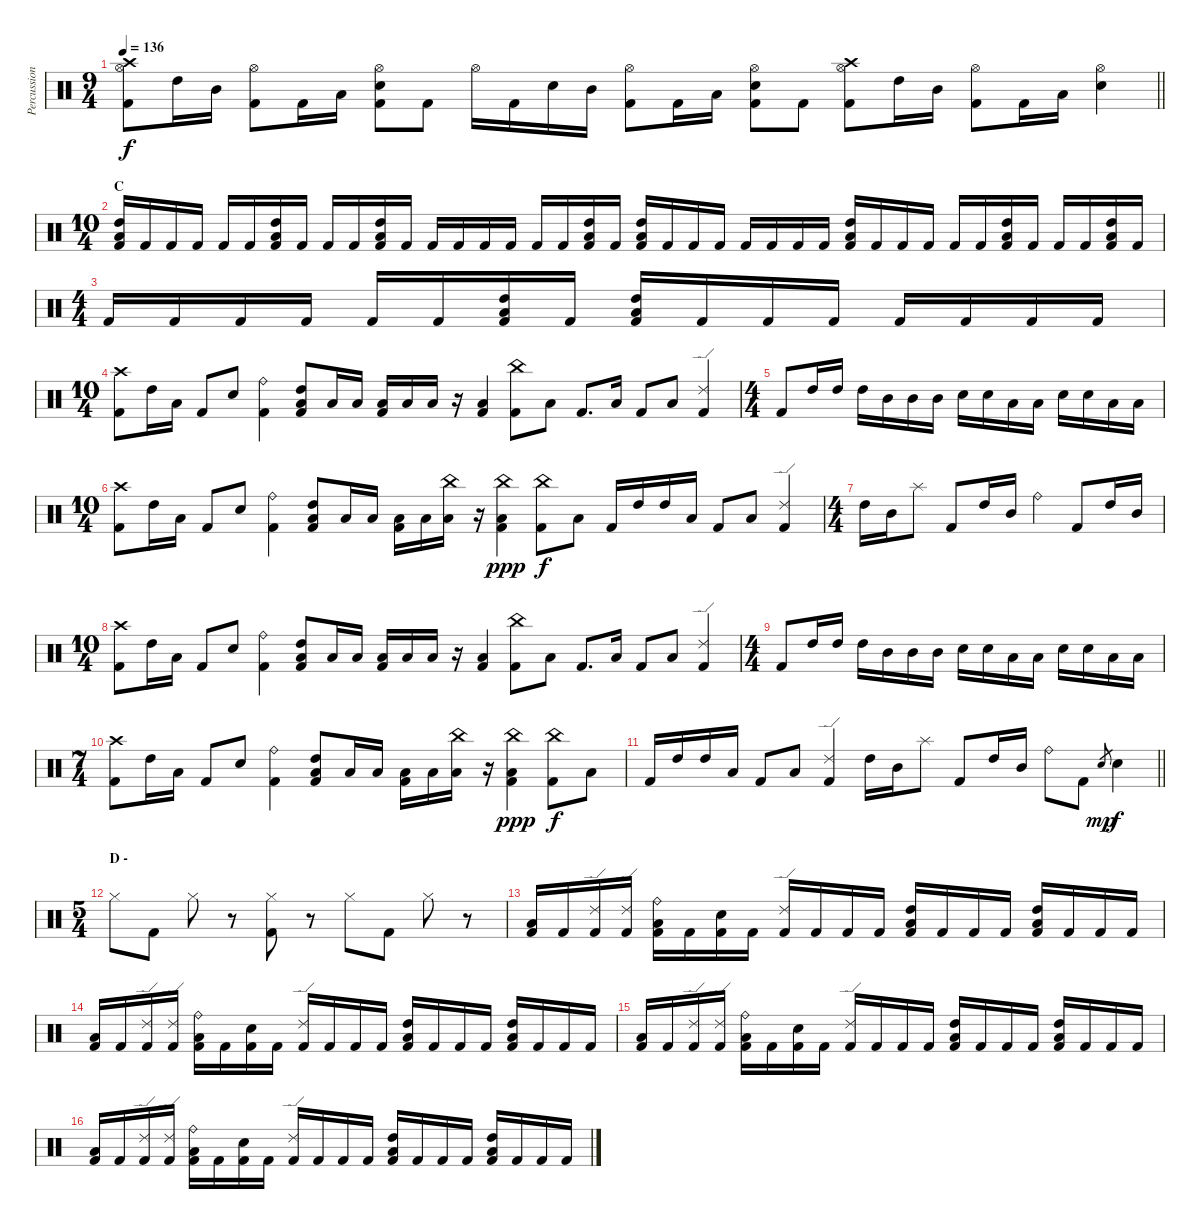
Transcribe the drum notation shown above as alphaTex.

\track ("Percussions" "Percussion") {instrument percussion}
\staff {score}
\articulation defaults
\ts (9 4)
\tempo 136
\clef neutral
\barLineRight lightlight
\ks c
("Crash high (hit)" "Hi-Hat (open)" "Kick (hit) 2").8{dy f} "High Tom (hit)".16 "Mid Tom (hit)".16 ("Hi-Hat (open)" "Kick (hit) 2").8 "Kick (hit) 2".16 "Low Tom (hit)".16 ("Hi-Hat (open)" "Snare (hit) 2" "Kick (hit) 2").8 "Kick (hit) 2".8 "Hi-Hat (open)".16 "Kick (hit) 2".16 "Snare (hit) 2".16 "Mid Tom (hit)".16 ("Hi-Hat (open)" "Kick (hit) 2").8 "Kick (hit) 2".16 "Low Tom (hit)".16 ("Hi-Hat (open)" "Snare (hit) 2" "Kick (hit) 2").8 "Kick (hit) 2".8 ("Crash high (hit)" "Hi-Hat (open)" "Kick (hit) 2").8 "High Tom (hit)".16 "Mid Tom (hit)".16 ("Hi-Hat (open)" "Kick (hit) 2").8 "Kick (hit) 2".16 "Low Tom (hit)".16 ("Hi-Hat (open)" "Snare (hit) 2").4 |
\ts (10 4)
\section ("" "C")
("Low Tom (hit)" "High Tom (hit)" "Kick (hit) 2").16 "Kick (hit) 2".16 "Kick (hit) 2".16 "Kick (hit) 2".16 "Kick (hit) 2".16 "Kick (hit) 2".16 ("Low Tom (hit)" "High Tom (hit)" "Kick (hit) 2").16 "Kick (hit) 2".16 "Kick (hit) 2".16 "Kick (hit) 2".16 ("Low Tom (hit)" "High Tom (hit)" "Kick (hit) 2").16 "Kick (hit) 2".16 "Kick (hit) 2".16 "Kick (hit) 2".16 "Kick (hit) 2".16 "Kick (hit) 2".16 "Kick (hit) 2".16 "Kick (hit) 2".16 ("Low Tom (hit)" "High Tom (hit)" "Kick (hit) 2").16 "Kick (hit) 2".16 ("Low Tom (hit)" "High Tom (hit)" "Kick (hit) 2").16 "Kick (hit) 2".16 "Kick (hit) 2".16 "Kick (hit) 2".16 "Kick (hit) 2".16 "Kick (hit) 2".16 "Kick (hit) 2".16 "Kick (hit) 2".16 ("Low Tom (hit)" "High Tom (hit)" "Kick (hit) 2").16 "Kick (hit) 2".16 "Kick (hit) 2".16 "Kick (hit) 2".16 "Kick (hit) 2".16 "Kick (hit) 2".16 ("Low Tom (hit)" "High Tom (hit)" "Kick (hit) 2").16 "Kick (hit) 2".16 "Kick (hit) 2".16 "Kick (hit) 2".16 ("Low Tom (hit)" "High Tom (hit)" "Kick (hit) 2").16 "Kick (hit) 2".16 |
\ts (4 4)
"Kick (hit) 2".16 "Kick (hit) 2".16 "Kick (hit) 2".16 "Kick (hit) 2".16 "Kick (hit) 2".16 "Kick (hit) 2".16 ("Low Tom (hit)" "High Tom (hit)" "Kick (hit) 2").16 "Kick (hit) 2".16 ("Low Tom (hit)" "High Tom (hit)" "Kick (hit) 2").16 "Kick (hit) 2".16 "Kick (hit) 2".16 "Kick (hit) 2".16 "Kick (hit) 2".16 "Kick (hit) 2".16 "Kick (hit) 2".16 "Kick (hit) 2".16 |
\ts (10 4)
("Crash high (hit)" "Kick (hit) 2").8 "High Tom (hit)".16 "Low Tom (hit)".16 "Kick (hit) 2".8 "Snare (hit) 2".8 ("Ride (bell)" "Kick (hit) 2").4 ("Low Tom (hit)" "High Tom (hit)" "Kick (hit) 2").8 "Low Tom (hit)".16 "Low Tom (hit)".16 ("Low Tom (hit)" "Kick (hit) 2").16 "Low Tom (hit)".16 "Low Tom (hit)".16 r.16 ("Low Tom (hit)" "Kick (hit) 2").4 ("China (hit)" "Kick (hit) 2").8 "Low Tom (hit)".8 "Kick (hit) 2".8{d} "Low Tom (hit)".16 "Kick (hit) 2".8 "Low Tom (hit)".8 ("Ride (edge) 2" "Kick (hit) 2").4 |
\ts (4 4)
"Kick (hit) 2".8 "High Tom (hit)".16 "High Tom (hit)".16 "High Tom (hit)".16 "Mid Tom (hit)".16 "Mid Tom (hit)".16 "Mid Tom (hit)".16 "Snare (hit) 2".16 "Snare (hit) 2".16 "Low Floor Tom (hit)".16 "Low Floor Tom (hit)".16 "Snare (hit) 2".16 "Snare (hit) 2".16 "Low Floor Tom (hit)".16 "Low Floor Tom (hit)".16 |
\ts (10 4)
("Crash high (hit)" "Kick (hit) 2").8 "High Tom (hit)".16 "Low Tom (hit)".16 "Kick (hit) 2".8 "Snare (hit) 2".8 ("Ride (bell)" "Kick (hit) 2").4 ("Low Tom (hit)" "High Tom (hit)" "Kick (hit) 2").8 "Low Tom (hit)".16 "Low Tom (hit)".16 ("Low Tom (hit)" "Kick (hit) 2").16 "Low Tom (hit)".16 ("China (hit)" "Low Tom (hit)").16 r.16 ("China (hit)" "Low Tom (hit)" "Kick (hit) 2").4{dy ppp} ("China (hit)" "Kick (hit) 2").8{dy f} "Low Tom (hit)".8 "Kick (hit) 2".16 "High Tom (hit)".16 "High Tom (hit)".16 "Low Tom (hit)".16 "Kick (hit) 2".8 "Low Tom (hit)".8 ("Ride (edge) 2" "Kick (hit) 2").4 |
\ts (4 4)
"High Tom (hit)".16 "Mid Tom (hit)".16 "Splash (hit)".8 "Kick (hit) 2".8 "High Tom (hit)".16 "Mid Tom (hit)".16 "Ride (bell)".4 "Kick (hit) 2".8 "High Tom (hit)".16 "Mid Tom (hit)".16 |
\ts (10 4)
("Crash high (hit)" "Kick (hit) 2").8 "High Tom (hit)".16 "Low Tom (hit)".16 "Kick (hit) 2".8 "Snare (hit) 2".8 ("Ride (bell)" "Kick (hit) 2").4 ("Low Tom (hit)" "High Tom (hit)" "Kick (hit) 2").8 "Low Tom (hit)".16 "Low Tom (hit)".16 ("Low Tom (hit)" "Kick (hit) 2").16 "Low Tom (hit)".16 "Low Tom (hit)".16 r.16 ("Low Tom (hit)" "Kick (hit) 2").4 ("China (hit)" "Kick (hit) 2").8 "Low Tom (hit)".8 "Kick (hit) 2".8{d} "Low Tom (hit)".16 "Kick (hit) 2".8 "Low Tom (hit)".8 ("Ride (edge) 2" "Kick (hit) 2").4 |
\ts (4 4)
"Kick (hit) 2".8 "High Tom (hit)".16 "High Tom (hit)".16 "High Tom (hit)".16 "Mid Tom (hit)".16 "Mid Tom (hit)".16 "Mid Tom (hit)".16 "Snare (hit) 2".16 "Snare (hit) 2".16 "Low Floor Tom (hit)".16 "Low Floor Tom (hit)".16 "Snare (hit) 2".16 "Snare (hit) 2".16 "Low Floor Tom (hit)".16 "Low Floor Tom (hit)".16 |
\ts (7 4)
("Crash high (hit)" "Kick (hit) 2").8 "High Tom (hit)".16 "Low Tom (hit)".16 "Kick (hit) 2".8 "Snare (hit) 2".8 ("Ride (bell)" "Kick (hit) 2").4 ("Low Tom (hit)" "High Tom (hit)" "Kick (hit) 2").8 "Low Tom (hit)".16 "Low Tom (hit)".16 ("Low Tom (hit)" "Kick (hit) 2").16 "Low Tom (hit)".16 ("China (hit)" "Low Tom (hit)").16 r.16 ("China (hit)" "Low Tom (hit)" "Kick (hit) 2").4{dy ppp} ("China (hit)" "Kick (hit) 2").8{dy f} "Low Tom (hit)".8 |
\barLineRight lightlight "Kick (hit) 2".16 "High Tom (hit)".16 "High Tom (hit)".16 "Low Tom (hit)".16 "Kick (hit) 2".8 "Low Tom (hit)".8
("Ride (edge) 2" "Kick (hit) 2").4 "High Tom (hit)".16 "Mid Tom (hit)".16 "Splash (hit)".8 "Kick (hit) 2".8 "High Tom (hit)".16 "Mid Tom (hit)".16 "Ride (bell)".8 "Kick (hit) 2".8 "Snare (hit) 2".8{gr dy mp} "Snare (hit) 2".4{dy f} |
\ts (5 4)
\section ("" "D -")
"Hi-Hat (closed)".8 "Kick (hit) 2".8 "Hi-Hat (closed)".8 r.8 ("Hi-Hat (closed)" "Kick (hit) 2").8 r.8 "Hi-Hat (closed)".8 "Kick (hit) 2".8 "Hi-Hat (closed)".8 r.8 |
("Low Tom (hit)" "Kick (hit) 2").16 "Kick (hit) 2".16 ("Ride (edge) 2" "Kick (hit) 2").16 ("Ride (edge) 2" "Kick (hit) 2").16 ("Ride (bell)" "Low Tom (hit)" "Kick (hit) 2").16 "Kick (hit) 2".16 ("Snare (hit) 2" "Kick (hit) 2").16 "Kick (hit) 2".16 ("Ride (edge) 2" "Kick (hit) 2").16 "Kick (hit) 2".16 "Kick (hit) 2".16 "Kick (hit) 2".16 ("Low Tom (hit)" "High Tom (hit)" "Kick (hit) 2").16 "Kick (hit) 2".16 "Kick (hit) 2".16 "Kick (hit) 2".16 ("Low Tom (hit)" "High Tom (hit)" "Kick (hit) 2").16 "Kick (hit) 2".16 "Kick (hit) 2".16 "Kick (hit) 2".16 |
("Low Tom (hit)" "Kick (hit) 2").16 "Kick (hit) 2".16 ("Ride (edge) 2" "Kick (hit) 2").16 ("Ride (edge) 2" "Kick (hit) 2").16 ("Ride (bell)" "Low Tom (hit)" "Kick (hit) 2").16 "Kick (hit) 2".16 ("Snare (hit) 2" "Kick (hit) 2").16 "Kick (hit) 2".16 ("Ride (edge) 2" "Kick (hit) 2").16 "Kick (hit) 2".16 "Kick (hit) 2".16 "Kick (hit) 2".16 ("Low Tom (hit)" "High Tom (hit)" "Kick (hit) 2").16 "Kick (hit) 2".16 "Kick (hit) 2".16 "Kick (hit) 2".16 ("Low Tom (hit)" "High Tom (hit)" "Kick (hit) 2").16 "Kick (hit) 2".16 "Kick (hit) 2".16 "Kick (hit) 2".16 |
("Low Tom (hit)" "Kick (hit) 2").16 "Kick (hit) 2".16 ("Ride (edge) 2" "Kick (hit) 2").16 ("Ride (edge) 2" "Kick (hit) 2").16 ("Ride (bell)" "Low Tom (hit)" "Kick (hit) 2").16 "Kick (hit) 2".16 ("Snare (hit) 2" "Kick (hit) 2").16 "Kick (hit) 2".16 ("Ride (edge) 2" "Kick (hit) 2").16 "Kick (hit) 2".16 "Kick (hit) 2".16 "Kick (hit) 2".16 ("Low Tom (hit)" "High Tom (hit)" "Kick (hit) 2").16 "Kick (hit) 2".16 "Kick (hit) 2".16 "Kick (hit) 2".16 ("Low Tom (hit)" "High Tom (hit)" "Kick (hit) 2").16 "Kick (hit) 2".16 "Kick (hit) 2".16 "Kick (hit) 2".16 |
("Low Tom (hit)" "Kick (hit) 2").16 "Kick (hit) 2".16 ("Ride (edge) 2" "Kick (hit) 2").16 ("Ride (edge) 2" "Kick (hit) 2").16 ("Ride (bell)" "Low Tom (hit)" "Kick (hit) 2").16 "Kick (hit) 2".16 ("Snare (hit) 2" "Kick (hit) 2").16 "Kick (hit) 2".16 ("Ride (edge) 2" "Kick (hit) 2").16 "Kick (hit) 2".16 "Kick (hit) 2".16 "Kick (hit) 2".16 ("Low Tom (hit)" "High Tom (hit)" "Kick (hit) 2").16 "Kick (hit) 2".16 "Kick (hit) 2".16 "Kick (hit) 2".16 ("Low Tom (hit)" "High Tom (hit)" "Kick (hit) 2").16 "Kick (hit) 2".16 "Kick (hit) 2".16 "Kick (hit) 2".16
